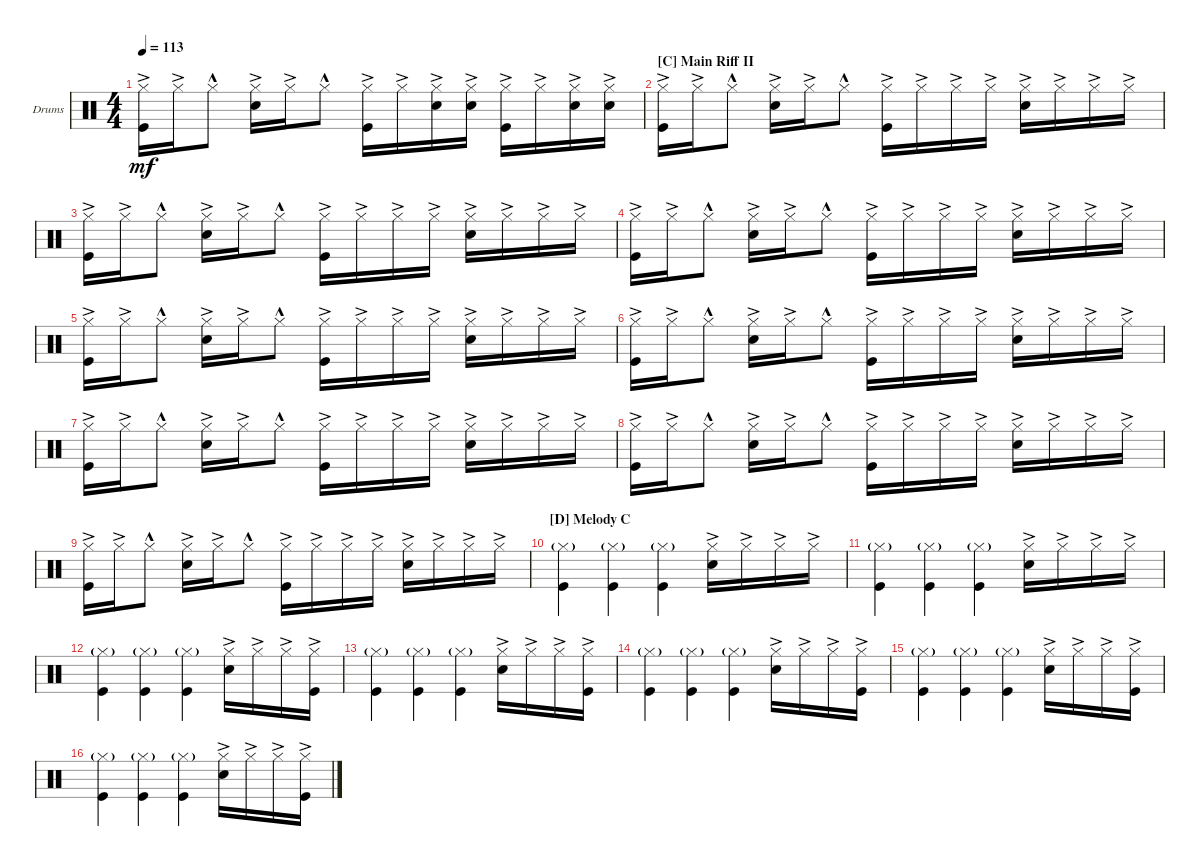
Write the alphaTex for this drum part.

\defaultSystemsLayout 4
\bracketExtendMode groupsimilarinstruments
\firstSystemTrackNameOrientation horizontal
\otherSystemsTrackNameOrientation horizontal
\track ("Drumkit" "Drums") {instrument percussion}
\staff {score}
\articulation defaults
\ts (4 4)
\tempo 113
\clef neutral
\ks c
("Kick (hit)" "Hi-Hat (closed)"{ac}).16{dy mf} "Hi-Hat (closed)"{ac}.16 "Hi-Hat (closed)"{hac}.8 ("Hi-Hat (closed)"{ac} "Snare (hit) 2").16 "Hi-Hat (closed)"{ac}.16 "Hi-Hat (closed)"{hac}.8 ("Kick (hit)" "Hi-Hat (closed)"{ac}).16 "Hi-Hat (closed)"{ac}.16 ("Hi-Hat (closed)"{ac} "Snare (hit) 2").16 ("Hi-Hat (closed)"{ac} "Snare (hit) 2").16 ("Kick (hit)" "Hi-Hat (closed)"{ac}).16 "Hi-Hat (closed)"{ac}.16 ("Hi-Hat (closed)"{ac} "Snare (hit) 2").16 ("Hi-Hat (closed)"{ac} "Snare (hit) 2").16 |
\section ("C" "Main Riff II")
("Kick (hit)" "Hi-Hat (closed)"{ac}).16 "Hi-Hat (closed)"{ac}.16 "Hi-Hat (closed)"{hac}.8 ("Hi-Hat (closed)"{ac} "Snare (hit) 2").16 "Hi-Hat (closed)"{ac}.16 "Hi-Hat (closed)"{hac}.8 ("Kick (hit)" "Hi-Hat (closed)"{ac}).16 "Hi-Hat (closed)"{ac}.16 "Hi-Hat (closed)"{ac}.16 "Hi-Hat (closed)"{ac}.16 ("Hi-Hat (closed)"{ac} "Snare (hit) 2").16 "Hi-Hat (closed)"{ac}.16 "Hi-Hat (closed)"{ac}.16 "Hi-Hat (closed)"{ac}.16 |
("Kick (hit)" "Hi-Hat (closed)"{ac}).16 "Hi-Hat (closed)"{ac}.16 "Hi-Hat (closed)"{hac}.8 ("Hi-Hat (closed)"{ac} "Snare (hit) 2").16 "Hi-Hat (closed)"{ac}.16 "Hi-Hat (closed)"{hac}.8 ("Kick (hit)" "Hi-Hat (closed)"{ac}).16 "Hi-Hat (closed)"{ac}.16 "Hi-Hat (closed)"{ac}.16 "Hi-Hat (closed)"{ac}.16 ("Hi-Hat (closed)"{ac} "Snare (hit) 2").16 "Hi-Hat (closed)"{ac}.16 "Hi-Hat (closed)"{ac}.16 "Hi-Hat (closed)"{ac}.16 |
("Kick (hit)" "Hi-Hat (closed)"{ac}).16 "Hi-Hat (closed)"{ac}.16 "Hi-Hat (closed)"{hac}.8 ("Hi-Hat (closed)"{ac} "Snare (hit) 2").16 "Hi-Hat (closed)"{ac}.16 "Hi-Hat (closed)"{hac}.8 ("Kick (hit)" "Hi-Hat (closed)"{ac}).16 "Hi-Hat (closed)"{ac}.16 "Hi-Hat (closed)"{ac}.16 "Hi-Hat (closed)"{ac}.16 ("Hi-Hat (closed)"{ac} "Snare (hit) 2").16 "Hi-Hat (closed)"{ac}.16 "Hi-Hat (closed)"{ac}.16 "Hi-Hat (closed)"{ac}.16 |
("Kick (hit)" "Hi-Hat (closed)"{ac}).16 "Hi-Hat (closed)"{ac}.16 "Hi-Hat (closed)"{hac}.8 ("Hi-Hat (closed)"{ac} "Snare (hit) 2").16 "Hi-Hat (closed)"{ac}.16 "Hi-Hat (closed)"{hac}.8 ("Kick (hit)" "Hi-Hat (closed)"{ac}).16 "Hi-Hat (closed)"{ac}.16 "Hi-Hat (closed)"{ac}.16 "Hi-Hat (closed)"{ac}.16 ("Hi-Hat (closed)"{ac} "Snare (hit) 2").16 "Hi-Hat (closed)"{ac}.16 "Hi-Hat (closed)"{ac}.16 "Hi-Hat (closed)"{ac}.16 |
("Kick (hit)" "Hi-Hat (closed)"{ac}).16 "Hi-Hat (closed)"{ac}.16 "Hi-Hat (closed)"{hac}.8 ("Hi-Hat (closed)"{ac} "Snare (hit) 2").16 "Hi-Hat (closed)"{ac}.16 "Hi-Hat (closed)"{hac}.8 ("Kick (hit)" "Hi-Hat (closed)"{ac}).16 "Hi-Hat (closed)"{ac}.16 "Hi-Hat (closed)"{ac}.16 "Hi-Hat (closed)"{ac}.16 ("Hi-Hat (closed)"{ac} "Snare (hit) 2").16 "Hi-Hat (closed)"{ac}.16 "Hi-Hat (closed)"{ac}.16 "Hi-Hat (closed)"{ac}.16 |
("Kick (hit)" "Hi-Hat (closed)"{ac}).16 "Hi-Hat (closed)"{ac}.16 "Hi-Hat (closed)"{hac}.8 ("Hi-Hat (closed)"{ac} "Snare (hit) 2").16 "Hi-Hat (closed)"{ac}.16 "Hi-Hat (closed)"{hac}.8 ("Kick (hit)" "Hi-Hat (closed)"{ac}).16 "Hi-Hat (closed)"{ac}.16 "Hi-Hat (closed)"{ac}.16 "Hi-Hat (closed)"{ac}.16 ("Hi-Hat (closed)"{ac} "Snare (hit) 2").16 "Hi-Hat (closed)"{ac}.16 "Hi-Hat (closed)"{ac}.16 "Hi-Hat (closed)"{ac}.16 |
("Kick (hit)" "Hi-Hat (closed)"{ac}).16 "Hi-Hat (closed)"{ac}.16 "Hi-Hat (closed)"{hac}.8 ("Hi-Hat (closed)"{ac} "Snare (hit) 2").16 "Hi-Hat (closed)"{ac}.16 "Hi-Hat (closed)"{hac}.8 ("Kick (hit)" "Hi-Hat (closed)"{ac}).16 "Hi-Hat (closed)"{ac}.16 "Hi-Hat (closed)"{ac}.16 "Hi-Hat (closed)"{ac}.16 ("Hi-Hat (closed)"{ac} "Snare (hit) 2").16 "Hi-Hat (closed)"{ac}.16 "Hi-Hat (closed)"{ac}.16 "Hi-Hat (closed)"{ac}.16 |
("Kick (hit)" "Hi-Hat (closed)"{ac}).16 "Hi-Hat (closed)"{ac}.16 "Hi-Hat (closed)"{hac}.8 ("Hi-Hat (closed)"{ac} "Snare (hit) 2").16 "Hi-Hat (closed)"{ac}.16 "Hi-Hat (closed)"{hac}.8 ("Kick (hit)" "Hi-Hat (closed)"{ac}).16 "Hi-Hat (closed)"{ac}.16 "Hi-Hat (closed)"{ac}.16 "Hi-Hat (closed)"{ac}.16 ("Hi-Hat (closed)"{ac} "Snare (hit) 2").16 "Hi-Hat (closed)"{ac}.16 "Hi-Hat (closed)"{ac}.16 "Hi-Hat (closed)"{ac}.16 |
\section ("D" "Melody C")
("Kick (hit)" "Hi-Hat (closed)"{g}).4 ("Kick (hit)" "Hi-Hat (closed)"{g}).4 ("Kick (hit)" "Hi-Hat (closed)"{g}).4 ("Hi-Hat (closed)"{ac} "Snare (hit) 2").16 "Hi-Hat (closed)"{ac}.16 "Hi-Hat (closed)"{ac}.16 "Hi-Hat (closed)"{ac}.16 |
("Kick (hit)" "Hi-Hat (closed)"{g}).4 ("Kick (hit)" "Hi-Hat (closed)"{g}).4 ("Kick (hit)" "Hi-Hat (closed)"{g}).4 ("Hi-Hat (closed)"{ac} "Snare (hit) 2").16 "Hi-Hat (closed)"{ac}.16 "Hi-Hat (closed)"{ac}.16 "Hi-Hat (closed)"{ac}.16 |
("Kick (hit)" "Hi-Hat (closed)"{g}).4 ("Kick (hit)" "Hi-Hat (closed)"{g}).4 ("Kick (hit)" "Hi-Hat (closed)"{g}).4 ("Hi-Hat (closed)"{ac} "Snare (hit) 2").16 "Hi-Hat (closed)"{ac}.16 "Hi-Hat (closed)"{ac}.16 ("Hi-Hat (closed)"{ac} "Kick (hit)").16 |
("Kick (hit)" "Hi-Hat (closed)"{g}).4 ("Kick (hit)" "Hi-Hat (closed)"{g}).4 ("Kick (hit)" "Hi-Hat (closed)"{g}).4 ("Hi-Hat (closed)"{ac} "Snare (hit) 2").16 "Hi-Hat (closed)"{ac}.16 "Hi-Hat (closed)"{ac}.16 ("Hi-Hat (closed)"{ac} "Kick (hit)").16 |
("Kick (hit)" "Hi-Hat (closed)"{g}).4 ("Kick (hit)" "Hi-Hat (closed)"{g}).4 ("Kick (hit)" "Hi-Hat (closed)"{g}).4 ("Hi-Hat (closed)"{ac} "Snare (hit) 2").16 "Hi-Hat (closed)"{ac}.16 "Hi-Hat (closed)"{ac}.16 ("Hi-Hat (closed)"{ac} "Kick (hit)").16 |
("Kick (hit)" "Hi-Hat (closed)"{g}).4 ("Kick (hit)" "Hi-Hat (closed)"{g}).4 ("Kick (hit)" "Hi-Hat (closed)"{g}).4 ("Hi-Hat (closed)"{ac} "Snare (hit) 2").16 "Hi-Hat (closed)"{ac}.16 "Hi-Hat (closed)"{ac}.16 ("Hi-Hat (closed)"{ac} "Kick (hit)").16 |
("Kick (hit)" "Hi-Hat (closed)"{g}).4 ("Kick (hit)" "Hi-Hat (closed)"{g}).4 ("Kick (hit)" "Hi-Hat (closed)"{g}).4 ("Hi-Hat (closed)"{ac} "Snare (hit) 2").16 "Hi-Hat (closed)"{ac}.16 "Hi-Hat (closed)"{ac}.16 ("Hi-Hat (closed)"{ac} "Kick (hit)").16
